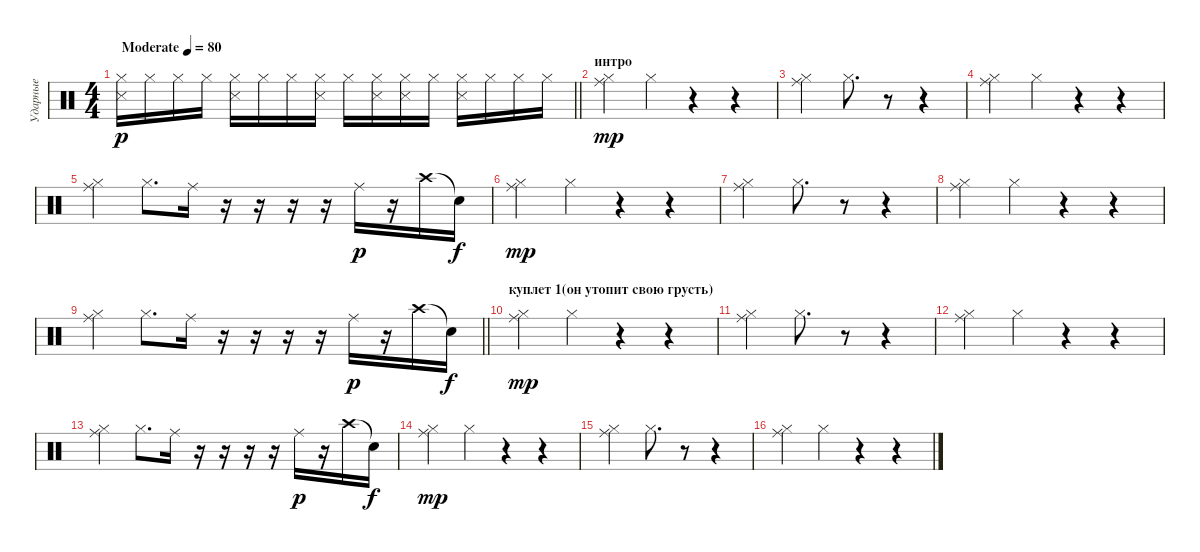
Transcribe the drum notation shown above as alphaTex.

\track ("Ударные" "Ударные") {instrument percussion}
\staff {score}
\articulation defaults
\ts (4 4)
\tempo (80 "Moderate")
\clef neutral
\barLineRight lightlight
\ks c
("Snare (side stick) 3" "Hi-Hat (closed)").16{dy p} "Hi-Hat (closed)".16 "Hi-Hat (closed)".16 "Hi-Hat (closed)".16 ("Snare (side stick) 3" "Hi-Hat (closed)").16 "Hi-Hat (closed)".16 "Hi-Hat (closed)".16 ("Snare (side stick) 3" "Hi-Hat (closed)").16 "Hi-Hat (closed)".16 ("Snare (side stick) 3" "Hi-Hat (closed)").16 ("Snare (side stick) 3" "Hi-Hat (closed)").16 "Hi-Hat (closed)".16 ("Snare (side stick) 3" "Hi-Hat (closed)").16 "Hi-Hat (closed)".16 "Hi-Hat (closed)".16 "Hi-Hat (closed)".16 |
\section ("" "интро")
("Ride (middle)" "Hi-Hat (closed)").4{dy mp} "Hi-Hat (closed)".4 r.4 r.4 |
("Ride (middle)" "Hi-Hat (closed)").4 "Hi-Hat (closed)".8{d} r.8 r.4 |
("Ride (middle)" "Hi-Hat (closed)").4 "Hi-Hat (closed)".4 r.4 r.4 |
("Ride (middle)" "Hi-Hat (closed)").4 "Hi-Hat (closed)".8{d} "Ride (middle)".16 r.16 r.16 r.16 r.16 "Ride (middle)".16{dy p} r.16 "Crash high (hit)".16 "Snare (hit)"{t}.16{dy f} |
("Ride (middle)" "Hi-Hat (closed)").4{dy mp} "Hi-Hat (closed)".4 r.4 r.4 |
("Ride (middle)" "Hi-Hat (closed)").4 "Hi-Hat (closed)".8{d} r.8 r.4 |
("Ride (middle)" "Hi-Hat (closed)").4 "Hi-Hat (closed)".4 r.4 r.4 |
\barLineRight lightlight
("Ride (middle)" "Hi-Hat (closed)").4 "Hi-Hat (closed)".8{d} "Ride (middle)".16 r.16 r.16 r.16 r.16 "Ride (middle)".16{dy p} r.16 "Crash high (hit)".16 "Snare (hit)"{t}.16{dy f} |
\section ("" "куплет 1(он утопит свою грусть)")
("Ride (middle)" "Hi-Hat (closed)").4{dy mp} "Hi-Hat (closed)".4 r.4 r.4 |
("Ride (middle)" "Hi-Hat (closed)").4 "Hi-Hat (closed)".8{d} r.8 r.4 |
("Ride (middle)" "Hi-Hat (closed)").4 "Hi-Hat (closed)".4 r.4 r.4 |
("Ride (middle)" "Hi-Hat (closed)").4 "Hi-Hat (closed)".8{d} "Ride (middle)".16 r.16 r.16 r.16 r.16 "Ride (middle)".16{dy p} r.16 "Crash high (hit)".16 "Snare (hit)"{t}.16{dy f} |
("Ride (middle)" "Hi-Hat (closed)").4{dy mp} "Hi-Hat (closed)".4 r.4 r.4 |
("Ride (middle)" "Hi-Hat (closed)").4 "Hi-Hat (closed)".8{d} r.8 r.4 |
("Ride (middle)" "Hi-Hat (closed)").4 "Hi-Hat (closed)".4 r.4 r.4
